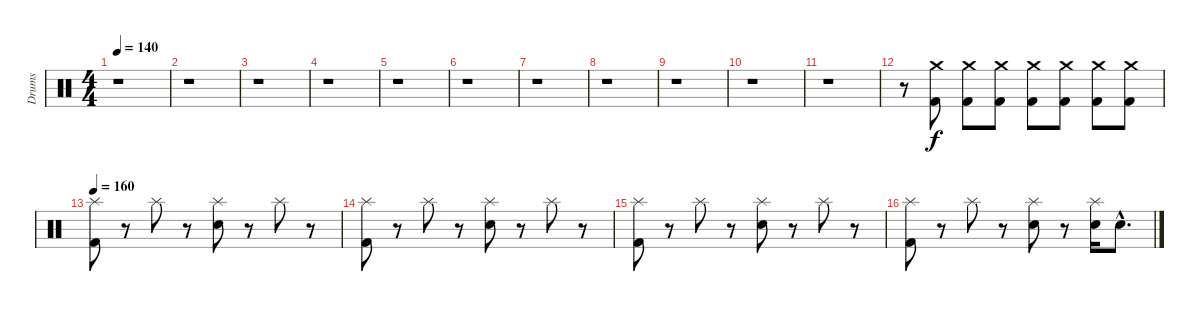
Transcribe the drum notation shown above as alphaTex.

\track ("Drums" "Drums") {instrument percussion}
\staff {score}
\articulation defaults
\ts (4 4)
\tempo 140
\clef neutral
\ks c
r.1{dy f} |
r.1 |
r.1 |
r.1 |
r.1 |
r.1 |
r.1 |
r.1 |
r.1 |
r.1 |
r.1 |
r.8 ("Crash medium (hit)" "Kick (hit) 2").8 ("Crash medium (hit)" "Kick (hit) 2").8 ("Crash medium (hit)" "Kick (hit) 2").8 ("Crash medium (hit)" "Kick (hit) 2").8 ("Crash medium (hit)" "Kick (hit) 2").8 ("Kick (hit) 2" "Crash medium (hit)").8 ("Crash medium (hit)" "Kick (hit) 2").8 |
\tempo 160
("Kick (hit) 2" "Splash (hit)").8 r.8 "Splash (hit)".8 r.8 ("Snare (hit) 2" "Splash (hit)").8 r.8 "Splash (hit)".8 r.8 |
("Kick (hit) 2" "Splash (hit)").8 r.8 "Splash (hit)".8 r.8 ("Snare (hit) 2" "Splash (hit)").8 r.8 "Splash (hit)".8 r.8 |
("Kick (hit) 2" "Splash (hit)").8 r.8 "Splash (hit)".8 r.8 ("Snare (hit) 2" "Splash (hit)").8 r.8 "Splash (hit)".8 r.8 |
("Kick (hit) 2" "Splash (hit)").8 r.8 "Splash (hit)".8 r.8 ("Snare (hit) 2" "Splash (hit)").8 r.8 ("Splash (hit)" "Snare (hit) 2").16 "Snare (hit) 2"{hac}.8{d}
